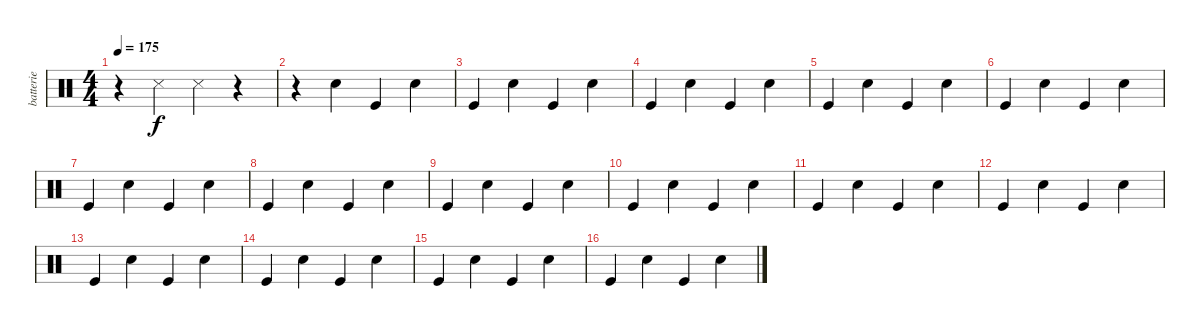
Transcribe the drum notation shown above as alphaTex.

\track ("batterie" "batterie") {instrument percussion}
\staff {score}
\articulation defaults
\ts (4 4)
\tempo 175
\clef neutral
\ks c
r.4{dy f} "Snare (side stick) 3".4 "Snare (side stick) 3".4 r.4 |
r.4 "Snare (hit) 2".4 "Kick (hit)".4 "Snare (hit) 2".4 |
"Kick (hit)".4 "Snare (hit) 2".4 "Kick (hit)".4 "Snare (hit) 2".4 |
"Kick (hit)".4 "Snare (hit) 2".4 "Kick (hit)".4 "Snare (hit) 2".4 |
"Kick (hit)".4 "Snare (hit) 2".4 "Kick (hit)".4 "Snare (hit) 2".4 |
"Kick (hit)".4 "Snare (hit) 2".4 "Kick (hit)".4 "Snare (hit) 2".4 |
"Kick (hit)".4 "Snare (hit) 2".4 "Kick (hit)".4 "Snare (hit) 2".4 |
"Kick (hit)".4 "Snare (hit) 2".4 "Kick (hit)".4 "Snare (hit) 2".4 |
"Kick (hit)".4 "Snare (hit) 2".4 "Kick (hit)".4 "Snare (hit) 2".4 |
"Kick (hit)".4 "Snare (hit) 2".4 "Kick (hit)".4 "Snare (hit) 2".4 |
"Kick (hit)".4 "Snare (hit) 2".4 "Kick (hit)".4 "Snare (hit) 2".4 |
"Kick (hit)".4 "Snare (hit) 2".4 "Kick (hit)".4 "Snare (hit) 2".4 |
"Kick (hit)".4 "Snare (hit) 2".4 "Kick (hit)".4 "Snare (hit) 2".4 |
"Kick (hit)".4 "Snare (hit) 2".4 "Kick (hit)".4 "Snare (hit) 2".4 |
"Kick (hit)".4 "Snare (hit) 2".4 "Kick (hit)".4 "Snare (hit) 2".4 |
"Kick (hit)".4 "Snare (hit) 2".4 "Kick (hit)".4 "Snare (hit) 2".4
